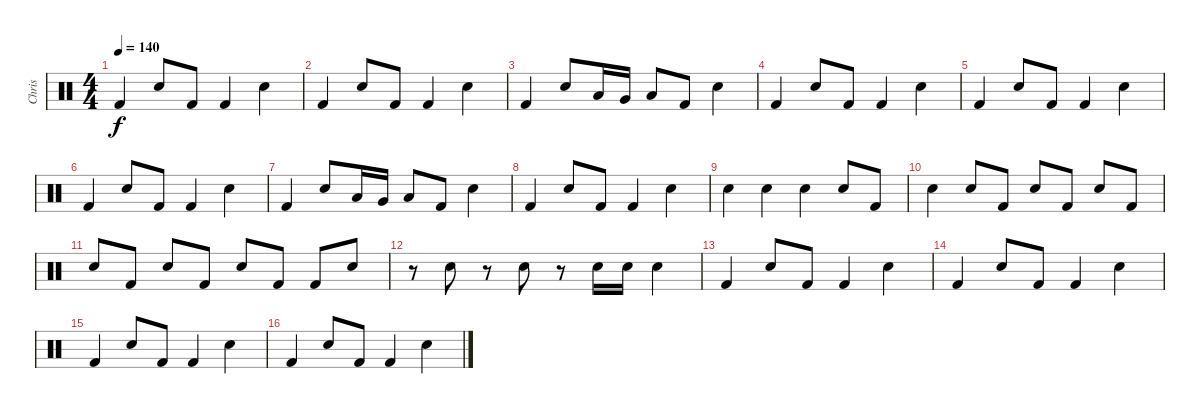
\track ("Chris" "Chris") {instrument percussion}
\staff {score}
\articulation defaults
\ts (4 4)
\tempo 140
\clef neutral
\ks c "Kick (hit) 2".4{dy f} "Snare (hit) 2".8 "Kick (hit) 2".8 "Kick (hit) 2".4 "Snare (hit) 2".4
|
"Kick (hit) 2".4 "Snare (hit) 2".8 "Kick (hit) 2".8 "Kick (hit) 2".4 "Snare (hit) 2".4 |
"Kick (hit) 2".4 "Snare (hit) 2".8 "Low Tom (hit)".16 "Very Low Tom (hit)".16 "Low Floor Tom (hit)".8 "Kick (hit) 2".8 "Snare (hit) 2".4 |
"Kick (hit) 2".4 "Snare (hit) 2".8 "Kick (hit) 2".8 "Kick (hit) 2".4 "Snare (hit) 2".4 |
"Kick (hit) 2".4 "Snare (hit) 2".8 "Kick (hit) 2".8 "Kick (hit) 2".4 "Snare (hit) 2".4 |
"Kick (hit) 2".4 "Snare (hit) 2".8 "Kick (hit) 2".8 "Kick (hit) 2".4 "Snare (hit) 2".4 |
"Kick (hit) 2".4 "Snare (hit) 2".8 "Low Tom (hit)".16 "Very Low Tom (hit)".16 "Low Floor Tom (hit)".8 "Kick (hit) 2".8 "Snare (hit) 2".4 |
"Kick (hit) 2".4 "Snare (hit) 2".8 "Kick (hit) 2".8 "Kick (hit) 2".4 "Snare (hit) 2".4 |
"Snare (hit) 2".4 "Snare (hit) 2".4 "Snare (hit) 2".4 "Snare (hit) 2".8 "Kick (hit) 2".8 |
"Snare (hit) 2".4 "Snare (hit) 2".8 "Kick (hit) 2".8 "Snare (hit) 2".8 "Kick (hit) 2".8 "Snare (hit) 2".8 "Kick (hit) 2".8 |
"Snare (hit) 2".8 "Kick (hit) 2".8 "Snare (hit) 2".8 "Kick (hit) 2".8 "Snare (hit) 2".8 "Kick (hit) 2".8 "Kick (hit) 2".8 "Snare (hit) 2".8 |
r.8 "Snare (hit) 2".8 r.8 "Snare (hit) 2".8 r.8 "Snare (hit) 2".16 "Snare (hit) 2".16 "Snare (hit) 2".4 |
"Kick (hit) 2".4 "Snare (hit) 2".8 "Kick (hit) 2".8 "Kick (hit) 2".4 "Snare (hit) 2".4 |
"Kick (hit) 2".4 "Snare (hit) 2".8 "Kick (hit) 2".8 "Kick (hit) 2".4 "Snare (hit) 2".4 |
"Kick (hit) 2".4 "Snare (hit) 2".8 "Kick (hit) 2".8 "Kick (hit) 2".4 "Snare (hit) 2".4 |
"Kick (hit) 2".4 "Snare (hit) 2".8 "Kick (hit) 2".8 "Kick (hit) 2".4 "Snare (hit) 2".4
